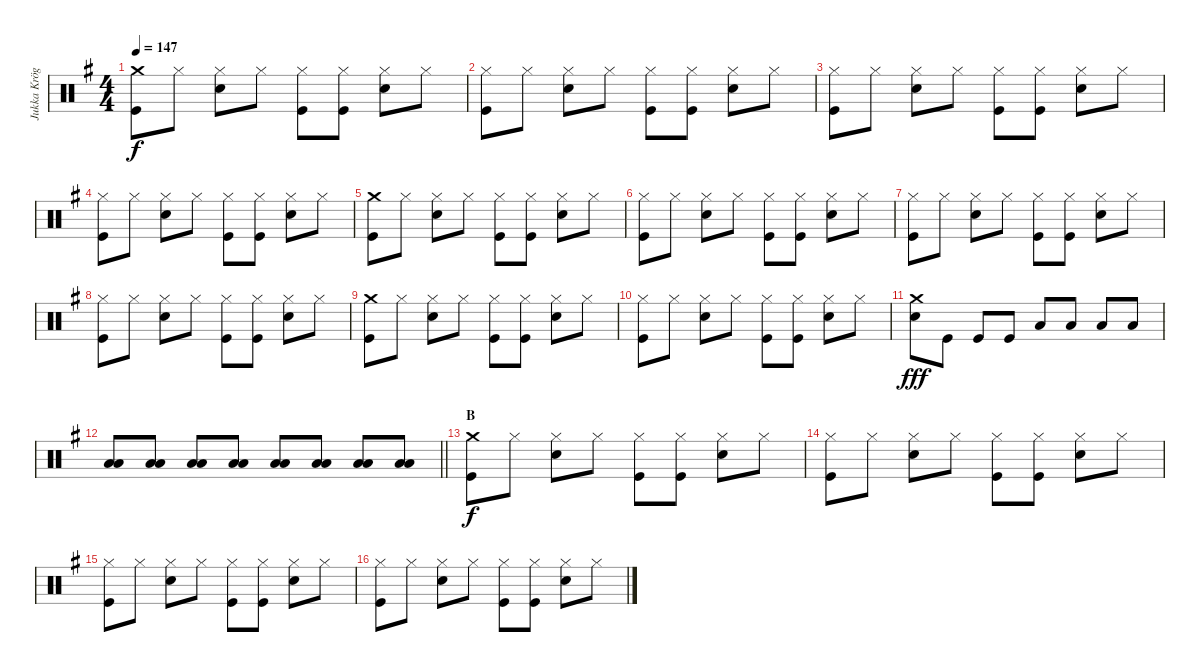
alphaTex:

\track ("Jukka Kröger" "Jukka Krög") {instrument percussion}
\staff {score}
\articulation defaults
\ts (4 4)
\tempo 147
\clef neutral
\ks eminor
("Crash medium (hit)" "Kick (hit)").8{dy f} "Hi-Hat (closed)".8 ("Hi-Hat (closed)" "Snare (hit) 2").8 "Hi-Hat (closed)".8 ("Hi-Hat (closed)" "Kick (hit)").8 ("Hi-Hat (closed)" "Kick (hit)").8 ("Hi-Hat (closed)" "Snare (hit) 2").8 "Hi-Hat (closed)".8 |
("Hi-Hat (closed)" "Kick (hit)").8 "Hi-Hat (closed)".8 ("Hi-Hat (closed)" "Snare (hit) 2").8 "Hi-Hat (closed)".8 ("Hi-Hat (closed)" "Kick (hit)").8 ("Hi-Hat (closed)" "Kick (hit)").8 ("Hi-Hat (closed)" "Snare (hit) 2").8 "Hi-Hat (closed)".8 |
("Hi-Hat (closed)" "Kick (hit)").8 "Hi-Hat (closed)".8 ("Hi-Hat (closed)" "Snare (hit) 2").8 "Hi-Hat (closed)".8 ("Hi-Hat (closed)" "Kick (hit)").8 ("Hi-Hat (closed)" "Kick (hit)").8 ("Hi-Hat (closed)" "Snare (hit) 2").8 "Hi-Hat (closed)".8 |
("Hi-Hat (closed)" "Kick (hit)").8 "Hi-Hat (closed)".8 ("Hi-Hat (closed)" "Snare (hit) 2").8 "Hi-Hat (closed)".8 ("Hi-Hat (closed)" "Kick (hit)").8 ("Hi-Hat (closed)" "Kick (hit)").8 ("Hi-Hat (closed)" "Snare (hit) 2").8 "Hi-Hat (closed)".8 |
("Crash medium (hit)" "Kick (hit)").8 "Hi-Hat (closed)".8 ("Hi-Hat (closed)" "Snare (hit) 2").8 "Hi-Hat (closed)".8 ("Hi-Hat (closed)" "Kick (hit)").8 ("Hi-Hat (closed)" "Kick (hit)").8 ("Hi-Hat (closed)" "Snare (hit) 2").8 "Hi-Hat (closed)".8 |
("Hi-Hat (closed)" "Kick (hit)").8 "Hi-Hat (closed)".8 ("Hi-Hat (closed)" "Snare (hit) 2").8 "Hi-Hat (closed)".8 ("Hi-Hat (closed)" "Kick (hit)").8 ("Hi-Hat (closed)" "Kick (hit)").8 ("Hi-Hat (closed)" "Snare (hit) 2").8 "Hi-Hat (closed)".8 |
("Hi-Hat (closed)" "Kick (hit)").8 "Hi-Hat (closed)".8 ("Hi-Hat (closed)" "Snare (hit) 2").8 "Hi-Hat (closed)".8 ("Hi-Hat (closed)" "Kick (hit)").8 ("Hi-Hat (closed)" "Kick (hit)").8 ("Hi-Hat (closed)" "Snare (hit) 2").8 "Hi-Hat (closed)".8 |
("Hi-Hat (closed)" "Kick (hit)").8 "Hi-Hat (closed)".8 ("Hi-Hat (closed)" "Snare (hit) 2").8 "Hi-Hat (closed)".8 ("Hi-Hat (closed)" "Kick (hit)").8 ("Hi-Hat (closed)" "Kick (hit)").8 ("Hi-Hat (closed)" "Snare (hit) 2").8 "Hi-Hat (closed)".8 |
("Crash medium (hit)" "Kick (hit)").8 "Hi-Hat (closed)".8 ("Hi-Hat (closed)" "Snare (hit) 2").8 "Hi-Hat (closed)".8 ("Hi-Hat (closed)" "Kick (hit)").8 ("Hi-Hat (closed)" "Kick (hit)").8 ("Hi-Hat (closed)" "Snare (hit) 2").8 "Hi-Hat (closed)".8 |
("Hi-Hat (closed)" "Kick (hit)").8 "Hi-Hat (closed)".8 ("Hi-Hat (closed)" "Snare (hit) 2").8 "Hi-Hat (closed)".8 ("Hi-Hat (closed)" "Kick (hit)").8 ("Hi-Hat (closed)" "Kick (hit)").8 ("Hi-Hat (closed)" "Snare (hit) 2").8 "Hi-Hat (closed)".8 |
("Crash medium (hit)" "Snare (hit) 2").8{dy fff} "Kick (hit)".8 "Kick (hit)".8 "Kick (hit)".8 "Low Floor Tom (hit)".8 "Low Floor Tom (hit)".8 "Low Floor Tom (hit)".8 "Low Floor Tom (hit)".8 |
\barLineRight lightlight
("Low Tom (hit)" "Low Floor Tom (hit)").8 ("Low Tom (hit)" "Low Floor Tom (hit)").8 ("Low Tom (hit)" "Low Floor Tom (hit)").8 ("Low Tom (hit)" "Low Floor Tom (hit)").8 ("Low Tom (hit)" "Low Floor Tom (hit)").8 ("Low Tom (hit)" "Low Floor Tom (hit)").8 ("Low Tom (hit)" "Low Floor Tom (hit)").8 ("Low Tom (hit)" "Low Floor Tom (hit)").8 |
\section ("" "B")
("Crash medium (hit)" "Kick (hit)").8{dy f} "Hi-Hat (closed)".8 ("Hi-Hat (closed)" "Snare (hit) 2").8 "Hi-Hat (closed)".8 ("Hi-Hat (closed)" "Kick (hit)").8 ("Hi-Hat (closed)" "Kick (hit)").8 ("Hi-Hat (closed)" "Snare (hit) 2").8 "Hi-Hat (closed)".8 |
("Hi-Hat (closed)" "Kick (hit)").8 "Hi-Hat (closed)".8 ("Hi-Hat (closed)" "Snare (hit) 2").8 "Hi-Hat (closed)".8 ("Hi-Hat (closed)" "Kick (hit)").8 ("Hi-Hat (closed)" "Kick (hit)").8 ("Hi-Hat (closed)" "Snare (hit) 2").8 "Hi-Hat (closed)".8 |
("Hi-Hat (closed)" "Kick (hit)").8 "Hi-Hat (closed)".8 ("Hi-Hat (closed)" "Snare (hit) 2").8 "Hi-Hat (closed)".8 ("Hi-Hat (closed)" "Kick (hit)").8 ("Hi-Hat (closed)" "Kick (hit)").8 ("Hi-Hat (closed)" "Snare (hit) 2").8 "Hi-Hat (closed)".8 |
("Hi-Hat (closed)" "Kick (hit)").8 "Hi-Hat (closed)".8 ("Hi-Hat (closed)" "Snare (hit) 2").8 "Hi-Hat (closed)".8 ("Hi-Hat (closed)" "Kick (hit)").8 ("Hi-Hat (closed)" "Kick (hit)").8 ("Hi-Hat (closed)" "Snare (hit) 2").8 "Hi-Hat (closed)".8
